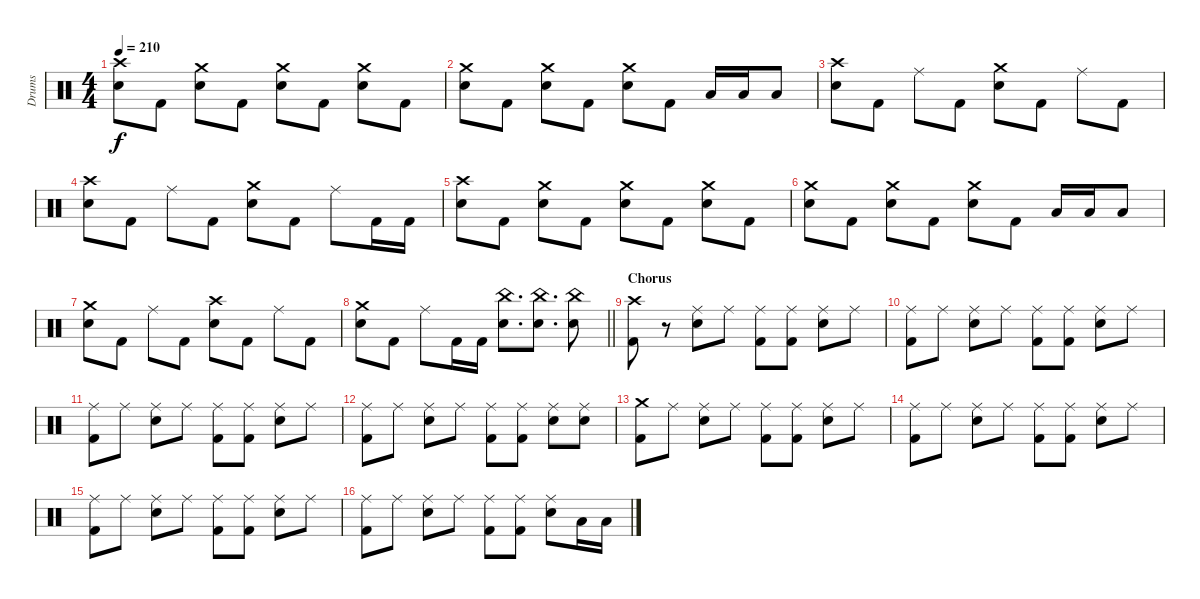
\track ("Drums" "Drums") {instrument percussion}
\staff {score}
\articulation defaults
\ts (4 4)
\tempo 210
\clef neutral
\ks c
("Crash high (hit)" "Electric Snare (hit)").8{dy f} "Kick (hit) 2".8 ("Crash medium (hit)" "Electric Snare (hit)").8 "Kick (hit) 2".8 ("Crash medium (hit)" "Electric Snare (hit)").8 "Kick (hit) 2".8 ("Crash medium (hit)" "Electric Snare (hit)").8 "Kick (hit) 2".8 |
("Crash medium (hit)" "Electric Snare (hit)").8 "Kick (hit) 2".8 ("Crash medium (hit)" "Electric Snare (hit)").8 "Kick (hit) 2".8 ("Crash medium (hit)" "Electric Snare (hit)").8 "Kick (hit) 2".8 "Low Tom (hit)".16 "Low Tom (hit)".16 "Low Tom (hit)".8 |
("Crash high (hit)" "Electric Snare (hit)").8 "Kick (hit) 2".8 "Ride (middle)".8 "Kick (hit) 2".8 ("Crash medium (hit)" "Electric Snare (hit)").8 "Kick (hit) 2".8 "Ride (middle)".8 "Kick (hit) 2".8 |
("Crash high (hit)" "Electric Snare (hit)").8 "Kick (hit) 2".8 "Ride (middle)".8 "Kick (hit) 2".8 ("Crash medium (hit)" "Electric Snare (hit)").8 "Kick (hit) 2".8 "Ride (middle)".8 "Kick (hit) 2".16 "Kick (hit) 2".16 |
("Crash high (hit)" "Electric Snare (hit)").8 "Kick (hit) 2".8 ("Crash medium (hit)" "Electric Snare (hit)").8 "Kick (hit) 2".8 ("Crash medium (hit)" "Electric Snare (hit)").8 "Kick (hit) 2".8 ("Crash medium (hit)" "Electric Snare (hit)").8 "Kick (hit) 2".8 |
("Crash medium (hit)" "Electric Snare (hit)").8 "Kick (hit) 2".8 ("Crash medium (hit)" "Electric Snare (hit)").8 "Kick (hit) 2".8 ("Crash medium (hit)" "Electric Snare (hit)").8 "Kick (hit) 2".8 "Low Floor Tom (hit)".16 "Low Floor Tom (hit)".16 "Low Floor Tom (hit)".8 |
("Crash medium (hit)" "Electric Snare (hit)").8 "Kick (hit) 2".8 "Ride (middle)".8 "Kick (hit) 2".8 ("Crash high (hit)" "Electric Snare (hit)").8 "Kick (hit) 2".8 "Ride (middle)".8 "Kick (hit) 2".8 |
\barLineRight lightlight
("Crash medium (hit)" "Electric Snare (hit)").8 "Kick (hit) 2".8 "Ride (middle)".8 "Kick (hit) 2".16 "Kick (hit) 2".16 ("China (hit)" "Electric Snare (hit)").8{d} ("China (hit)" "Electric Snare (hit)").8{d} ("China (hit)" "Electric Snare (hit)").8 |
\section ("" "Chorus")
("Crash high (hit)" "Kick (hit) 2").8 r.8 ("Ride (middle)" "Electric Snare (hit)").8 "Ride (middle)".8 ("Ride (middle)" "Kick (hit) 2").8 ("Ride (middle)" "Kick (hit) 2").8 ("Ride (middle)" "Electric Snare (hit)").8 "Ride (middle)".8 |
("Ride (middle)" "Kick (hit) 2").8 "Ride (middle)".8 ("Ride (middle)" "Electric Snare (hit)").8 "Ride (middle)".8 ("Ride (middle)" "Kick (hit) 2").8 ("Ride (middle)" "Kick (hit) 2").8 ("Ride (middle)" "Electric Snare (hit)").8 "Ride (middle)".8 |
("Ride (middle)" "Kick (hit) 2").8 "Ride (middle)".8 ("Ride (middle)" "Electric Snare (hit)").8 "Ride (middle)".8 ("Ride (middle)" "Kick (hit) 2").8 ("Ride (middle)" "Kick (hit) 2").8 ("Ride (middle)" "Electric Snare (hit)").8 "Ride (middle)".8 |
("Ride (middle)" "Kick (hit) 2").8 "Ride (middle)".8 ("Ride (middle)" "Electric Snare (hit)").8 "Ride (middle)".8 ("Ride (middle)" "Kick (hit) 2").8 ("Ride (middle)" "Kick (hit) 2").8 ("Ride (middle)" "Electric Snare (hit)").8 ("Ride (middle)" "Electric Snare (hit)").8 |
("Crash medium (hit)" "Kick (hit) 2").8 "Ride (middle)".8 ("Ride (middle)" "Electric Snare (hit)").8 "Ride (middle)".8 ("Ride (middle)" "Kick (hit) 2").8 ("Ride (middle)" "Kick (hit) 2").8 ("Ride (middle)" "Electric Snare (hit)").8 "Ride (middle)".8 |
("Ride (middle)" "Kick (hit) 2").8 "Ride (middle)".8 ("Ride (middle)" "Electric Snare (hit)").8 "Ride (middle)".8 ("Ride (middle)" "Kick (hit) 2").8 ("Ride (middle)" "Kick (hit) 2").8 ("Ride (middle)" "Electric Snare (hit)").8 "Ride (middle)".8 |
("Ride (middle)" "Kick (hit) 2").8 "Ride (middle)".8 ("Ride (middle)" "Electric Snare (hit)").8 "Ride (middle)".8 ("Ride (middle)" "Kick (hit) 2").8 ("Ride (middle)" "Kick (hit) 2").8 ("Ride (middle)" "Electric Snare (hit)").8 "Ride (middle)".8 |
("Ride (middle)" "Kick (hit) 2").8 "Ride (middle)".8 ("Ride (middle)" "Electric Snare (hit)").8 "Ride (middle)".8 ("Ride (middle)" "Kick (hit) 2").8 ("Ride (middle)" "Kick (hit) 2").8 ("Ride (middle)" "Electric Snare (hit)").8 "Low Tom (hit)".16 "Low Tom (hit)".16
